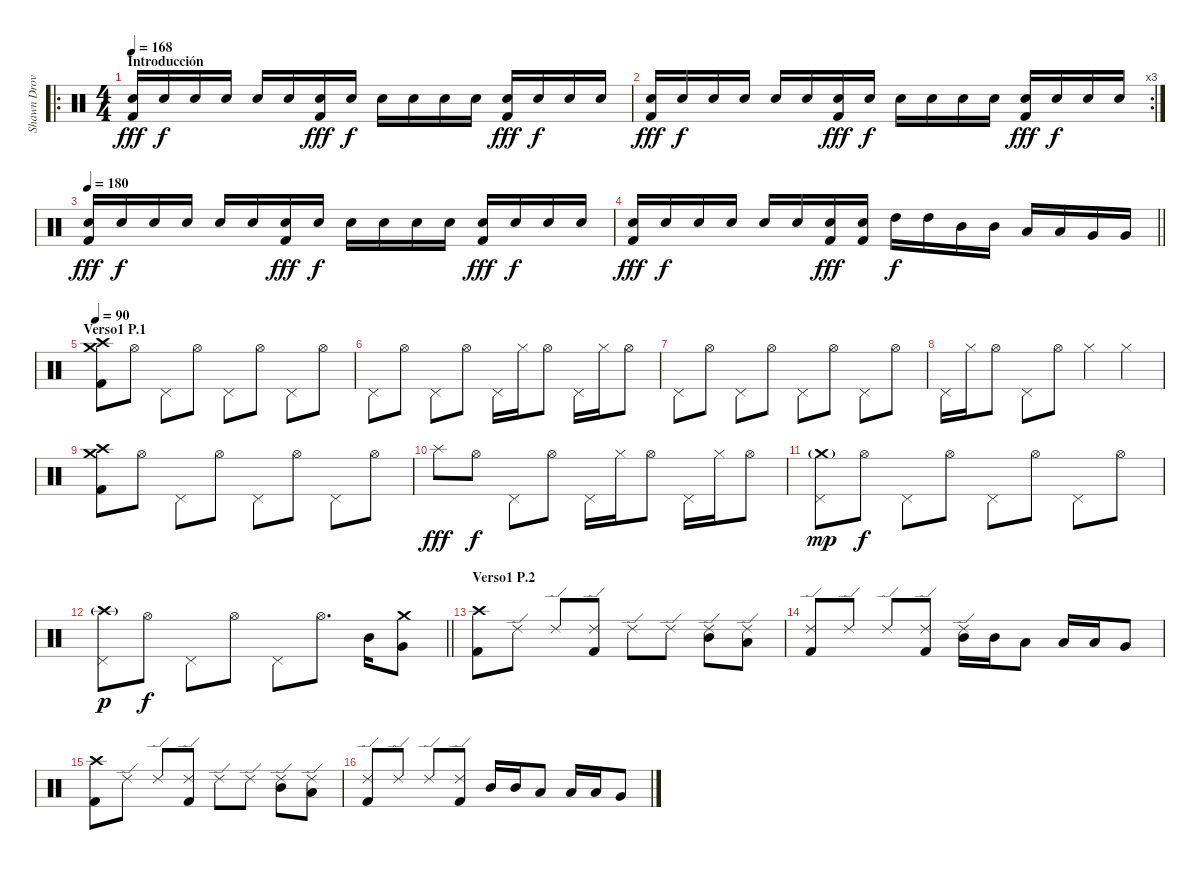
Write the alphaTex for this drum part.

\track ("Shawn Drover" "Shawn Drov") {instrument percussion}
\staff {score}
\articulation defaults
\ro
\ts (4 4)
\section ("" "Introducción")
\tempo 168
\tempo 180
\tempo 168
\clef neutral
\ks c
("Electric Snare (hit)" "Kick (hit) 2").16{dy fff} "Electric Snare (hit)".16{dy f} "Electric Snare (hit)".16 "Electric Snare (hit)".16 "Electric Snare (hit)".16 "Electric Snare (hit)".16 ("Electric Snare (hit)" "Kick (hit) 2").16{dy fff} "Electric Snare (hit)".16{dy f} "Electric Snare (hit)".16 "Electric Snare (hit)".16 "Electric Snare (hit)".16 "Electric Snare (hit)".16 ("Electric Snare (hit)" "Kick (hit) 2").16{dy fff} "Electric Snare (hit)".16{dy f} "Electric Snare (hit)".16 "Electric Snare (hit)".16 |
\rc 3
("Electric Snare (hit)" "Kick (hit) 2").16{dy fff} "Electric Snare (hit)".16{dy f} "Electric Snare (hit)".16 "Electric Snare (hit)".16 "Electric Snare (hit)".16 "Electric Snare (hit)".16 ("Electric Snare (hit)" "Kick (hit) 2").16{dy fff} "Electric Snare (hit)".16{dy f} "Electric Snare (hit)".16 "Electric Snare (hit)".16 "Electric Snare (hit)".16 "Electric Snare (hit)".16 ("Electric Snare (hit)" "Kick (hit) 2").16{dy fff} "Electric Snare (hit)".16{dy f} "Electric Snare (hit)".16 "Electric Snare (hit)".16 |
\tempo 180
("Electric Snare (hit)" "Kick (hit) 2").16{dy fff} "Electric Snare (hit)".16{dy f} "Electric Snare (hit)".16 "Electric Snare (hit)".16 "Electric Snare (hit)".16 "Electric Snare (hit)".16 ("Electric Snare (hit)" "Kick (hit) 2").16{dy fff} "Electric Snare (hit)".16{dy f} "Electric Snare (hit)".16 "Electric Snare (hit)".16 "Electric Snare (hit)".16 "Electric Snare (hit)".16 ("Electric Snare (hit)" "Kick (hit) 2").16{dy fff} "Electric Snare (hit)".16{dy f} "Electric Snare (hit)".16 "Electric Snare (hit)".16 |
\barLineRight lightlight
("Electric Snare (hit)" "Kick (hit) 2").16{dy fff} "Electric Snare (hit)".16{dy f} "Electric Snare (hit)".16 "Electric Snare (hit)".16 "Electric Snare (hit)".16 "Electric Snare (hit)".16 ("Electric Snare (hit)" "Kick (hit) 2").16{dy fff} ("Electric Snare (hit)" "Kick (hit) 2").16 "High Tom (hit)".16{dy f} "High Tom (hit)".16 "Mid Tom (hit)".16 "Mid Tom (hit)".16 "Low Tom (hit)".16 "Low Tom (hit)".16 "Very Low Tom (hit)".16 "Very Low Tom (hit)".16 |
\section ("" "Verso1 P.1")
\tempo 90
("Crash high (hit)" "Crash medium (hit)" "Kick (hit) 2").8 "Hi-Hat (open)".8 "Pedal Hi-Hat (hit)".8 "Hi-Hat (open)".8 "Pedal Hi-Hat (hit)".8 "Hi-Hat (open)".8 "Pedal Hi-Hat (hit)".8 "Hi-Hat (open)".8 |
"Pedal Hi-Hat (hit)".8 "Hi-Hat (open)".8 "Pedal Hi-Hat (hit)".8 "Hi-Hat (open)".8 "Pedal Hi-Hat (hit)".16 "Hi-Hat (closed)".16 "Hi-Hat (open)".8 "Pedal Hi-Hat (hit)".16 "Hi-Hat (closed)".16 "Hi-Hat (open)".8 |
"Pedal Hi-Hat (hit)".8 "Hi-Hat (open)".8 "Pedal Hi-Hat (hit)".8 "Hi-Hat (open)".8 "Pedal Hi-Hat (hit)".8 "Hi-Hat (open)".8 "Pedal Hi-Hat (hit)".8 "Hi-Hat (open)".8 |
"Pedal Hi-Hat (hit)".16 "Hi-Hat (closed)".16 "Hi-Hat (open)".8 "Pedal Hi-Hat (hit)".8 "Hi-Hat (open)".8 "Hi-Hat (closed)".4 "Hi-Hat (closed)".4 |
("Crash high (hit)" "Crash medium (hit)" "Kick (hit) 2").8 "Hi-Hat (open)".8 "Pedal Hi-Hat (hit)".8 "Hi-Hat (open)".8 "Pedal Hi-Hat (hit)".8 "Hi-Hat (open)".8 "Pedal Hi-Hat (hit)".8 "Hi-Hat (open)".8 |
"Splash (hit)".8{dy fff} "Hi-Hat (open)".8{dy f} "Pedal Hi-Hat (hit)".8 "Hi-Hat (open)".8 "Pedal Hi-Hat (hit)".16 "Hi-Hat (closed)".16 "Hi-Hat (open)".8 "Pedal Hi-Hat (hit)".16 "Hi-Hat (closed)".16 "Hi-Hat (open)".8 |
("Pedal Hi-Hat (hit)" "Crash medium (hit)"{g}).8{dy mp} "Hi-Hat (open)".8{dy f} "Pedal Hi-Hat (hit)".8 "Hi-Hat (open)".8 "Pedal Hi-Hat (hit)".8 "Hi-Hat (open)".8 "Pedal Hi-Hat (hit)".8 "Hi-Hat (open)".8 |
\barLineRight lightlight
("Pedal Hi-Hat (hit)" "Crash high (hit)"{g}).8{dy p} "Hi-Hat (open)".8{dy f} "Pedal Hi-Hat (hit)".8 "Hi-Hat (open)".8 "Pedal Hi-Hat (hit)".8 "Hi-Hat (open)".8{d} "Mid Tom (hit)".16 ("Crash medium (hit)" "Very Low Tom (hit)").8 |
\section ("" "Verso1 P.2")
("Crash high (hit)" "Kick (hit) 2").8 "Ride (edge) 2".8 "Ride (edge) 2".8 ("Ride (edge) 2" "Kick (hit) 2").8 "Ride (edge) 2".8 "Ride (edge) 2".8 ("Ride (edge) 2" "Mid Tom (hit)").8 ("Ride (edge) 2" "Low Tom (hit)").8 |
("Ride (edge) 2" "Kick (hit) 2").8 "Ride (edge) 2".8 "Ride (edge) 2".8 ("Ride (edge) 2" "Kick (hit) 2").8 ("Ride (edge) 2" "Mid Tom (hit)").16 "Mid Tom (hit)".16 "Low Tom (hit)".8 "Low Tom (hit)".16 "Low Tom (hit)".16 "Very Low Tom (hit)".8 |
("Crash high (hit)" "Kick (hit) 2").8 "Ride (edge) 2".8 "Ride (edge) 2".8 ("Ride (edge) 2" "Kick (hit) 2").8 "Ride (edge) 2".8 "Ride (edge) 2".8 ("Ride (edge) 2" "Mid Tom (hit)").8 ("Ride (edge) 2" "Low Tom (hit)").8 |
("Ride (edge) 2" "Kick (hit) 2").8 "Ride (edge) 2".8 "Ride (edge) 2".8 ("Ride (edge) 2" "Kick (hit) 2").8 "Mid Tom (hit)".16 "Mid Tom (hit)".16 "Low Tom (hit)".8 "Low Tom (hit)".16 "Low Tom (hit)".16 "Very Low Tom (hit)".8
